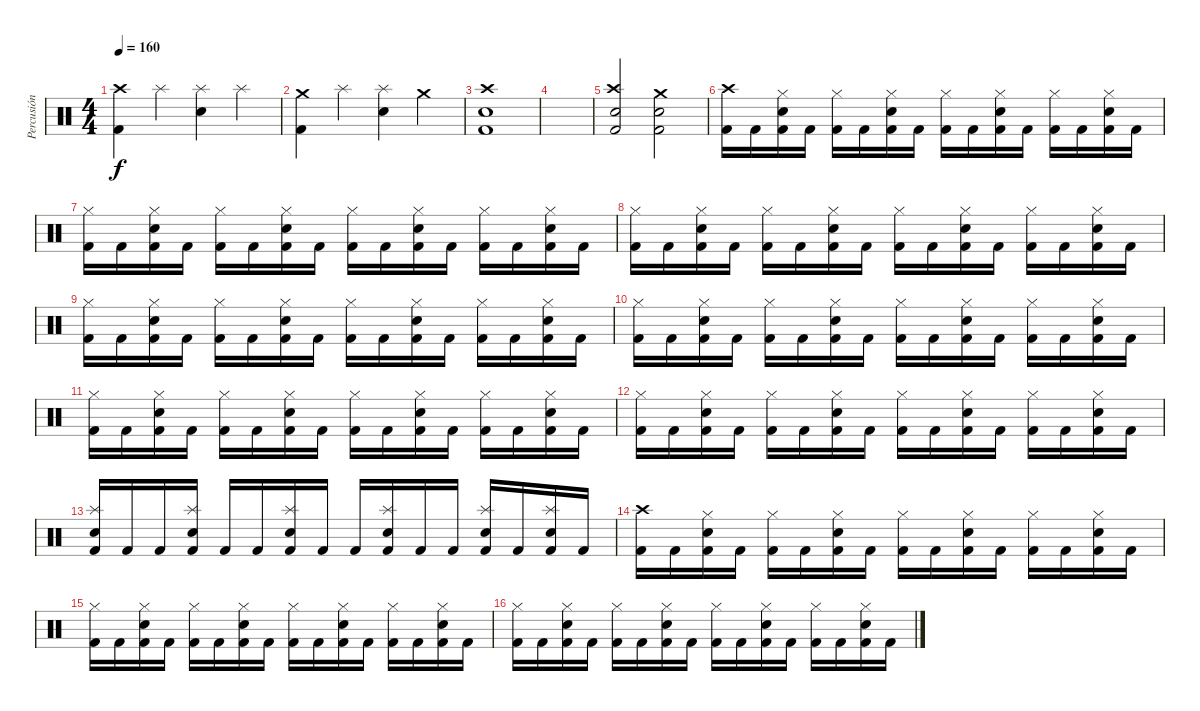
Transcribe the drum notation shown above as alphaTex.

\track ("Percusión" "Percusión") {instrument percussion}
\staff {score}
\articulation defaults
\ts (4 4)
\tempo 160
\clef neutral
\ks c
("Kick (hit) 2" "Crash high (hit)").4{dy f} "Splash (hit)".4 ("Snare (hit) 2" "Splash (hit)").4 "Splash (hit)".4 |
("Kick (hit) 2" "Crash medium (hit)").4 "Splash (hit)".4 ("Snare (hit) 2" "Splash (hit)").4 "Crash medium (hit)".4 |
("Kick (hit) 2" "Snare (hit) 2" "Crash high (hit)").1 |
|
("Kick (hit) 2" "Snare (hit) 2" "Crash high (hit)").2 ("Kick (hit) 2" "Snare (hit) 2" "Crash medium (hit)").2 |
("Kick (hit) 2" "Crash high (hit)").16 "Kick (hit) 2".16 ("Kick (hit) 2" "Snare (hit) 2" "Hi-Hat (closed)").16 "Kick (hit) 2".16 ("Kick (hit) 2" "Hi-Hat (closed)").16 "Kick (hit) 2".16 ("Kick (hit) 2" "Snare (hit) 2" "Hi-Hat (closed)").16 "Kick (hit) 2".16 ("Kick (hit) 2" "Hi-Hat (closed)").16 "Kick (hit) 2".16 ("Kick (hit) 2" "Snare (hit) 2" "Hi-Hat (closed)").16 "Kick (hit) 2".16 ("Kick (hit) 2" "Hi-Hat (closed)").16 "Kick (hit) 2".16 ("Kick (hit) 2" "Snare (hit) 2" "Hi-Hat (closed)").16 "Kick (hit) 2".16 |
("Kick (hit) 2" "Hi-Hat (closed)").16 "Kick (hit) 2".16 ("Kick (hit) 2" "Snare (hit) 2" "Hi-Hat (closed)").16 "Kick (hit) 2".16 ("Kick (hit) 2" "Hi-Hat (closed)").16 "Kick (hit) 2".16 ("Kick (hit) 2" "Snare (hit) 2" "Hi-Hat (closed)").16 "Kick (hit) 2".16 ("Kick (hit) 2" "Hi-Hat (closed)").16 "Kick (hit) 2".16 ("Kick (hit) 2" "Snare (hit) 2" "Hi-Hat (closed)").16 "Kick (hit) 2".16 ("Kick (hit) 2" "Hi-Hat (closed)").16 "Kick (hit) 2".16 ("Kick (hit) 2" "Snare (hit) 2" "Hi-Hat (closed)").16 "Kick (hit) 2".16 |
("Kick (hit) 2" "Hi-Hat (closed)").16 "Kick (hit) 2".16 ("Kick (hit) 2" "Snare (hit) 2" "Hi-Hat (closed)").16 "Kick (hit) 2".16 ("Kick (hit) 2" "Hi-Hat (closed)").16 "Kick (hit) 2".16 ("Kick (hit) 2" "Snare (hit) 2" "Hi-Hat (closed)").16 "Kick (hit) 2".16 ("Kick (hit) 2" "Hi-Hat (closed)").16 "Kick (hit) 2".16 ("Kick (hit) 2" "Snare (hit) 2" "Hi-Hat (closed)").16 "Kick (hit) 2".16 ("Kick (hit) 2" "Hi-Hat (closed)").16 "Kick (hit) 2".16 ("Kick (hit) 2" "Snare (hit) 2" "Hi-Hat (closed)").16 "Kick (hit) 2".16 |
("Kick (hit) 2" "Hi-Hat (closed)").16 "Kick (hit) 2".16 ("Kick (hit) 2" "Snare (hit) 2" "Hi-Hat (closed)").16 "Kick (hit) 2".16 ("Kick (hit) 2" "Hi-Hat (closed)").16 "Kick (hit) 2".16 ("Kick (hit) 2" "Snare (hit) 2" "Hi-Hat (closed)").16 "Kick (hit) 2".16 ("Kick (hit) 2" "Hi-Hat (closed)").16 "Kick (hit) 2".16 ("Kick (hit) 2" "Snare (hit) 2" "Hi-Hat (closed)").16 "Kick (hit) 2".16 ("Kick (hit) 2" "Hi-Hat (closed)").16 "Kick (hit) 2".16 ("Kick (hit) 2" "Snare (hit) 2" "Hi-Hat (closed)").16 "Kick (hit) 2".16 |
("Kick (hit) 2" "Hi-Hat (closed)").16 "Kick (hit) 2".16 ("Kick (hit) 2" "Snare (hit) 2" "Hi-Hat (closed)").16 "Kick (hit) 2".16 ("Kick (hit) 2" "Hi-Hat (closed)").16 "Kick (hit) 2".16 ("Kick (hit) 2" "Snare (hit) 2" "Hi-Hat (closed)").16 "Kick (hit) 2".16 ("Kick (hit) 2" "Hi-Hat (closed)").16 "Kick (hit) 2".16 ("Kick (hit) 2" "Snare (hit) 2" "Hi-Hat (closed)").16 "Kick (hit) 2".16 ("Kick (hit) 2" "Hi-Hat (closed)").16 "Kick (hit) 2".16 ("Kick (hit) 2" "Snare (hit) 2" "Hi-Hat (closed)").16 "Kick (hit) 2".16 |
("Kick (hit) 2" "Hi-Hat (closed)").16 "Kick (hit) 2".16 ("Kick (hit) 2" "Snare (hit) 2" "Hi-Hat (closed)").16 "Kick (hit) 2".16 ("Kick (hit) 2" "Hi-Hat (closed)").16 "Kick (hit) 2".16 ("Kick (hit) 2" "Snare (hit) 2" "Hi-Hat (closed)").16 "Kick (hit) 2".16 ("Kick (hit) 2" "Hi-Hat (closed)").16 "Kick (hit) 2".16 ("Kick (hit) 2" "Snare (hit) 2" "Hi-Hat (closed)").16 "Kick (hit) 2".16 ("Kick (hit) 2" "Hi-Hat (closed)").16 "Kick (hit) 2".16 ("Kick (hit) 2" "Snare (hit) 2" "Hi-Hat (closed)").16 "Kick (hit) 2".16 |
("Kick (hit) 2" "Hi-Hat (closed)").16 "Kick (hit) 2".16 ("Kick (hit) 2" "Snare (hit) 2" "Hi-Hat (closed)").16 "Kick (hit) 2".16 ("Kick (hit) 2" "Hi-Hat (closed)").16 "Kick (hit) 2".16 ("Kick (hit) 2" "Snare (hit) 2" "Hi-Hat (closed)").16 "Kick (hit) 2".16 ("Kick (hit) 2" "Hi-Hat (closed)").16 "Kick (hit) 2".16 ("Kick (hit) 2" "Snare (hit) 2" "Hi-Hat (closed)").16 "Kick (hit) 2".16 ("Kick (hit) 2" "Hi-Hat (closed)").16 "Kick (hit) 2".16 ("Kick (hit) 2" "Snare (hit) 2" "Hi-Hat (closed)").16 "Kick (hit) 2".16 |
("Kick (hit) 2" "Snare (hit) 2" "Splash (hit)").16 "Kick (hit) 2".16 "Kick (hit) 2".16 ("Kick (hit) 2" "Snare (hit) 2" "Splash (hit)").16 "Kick (hit) 2".16 "Kick (hit) 2".16 ("Kick (hit) 2" "Snare (hit) 2" "Splash (hit)").16 "Kick (hit) 2".16 "Kick (hit) 2".16 ("Kick (hit) 2" "Snare (hit) 2" "Splash (hit)").16 "Kick (hit) 2".16 "Kick (hit) 2".16 ("Kick (hit) 2" "Snare (hit) 2" "Splash (hit)").16 "Kick (hit) 2".16 ("Kick (hit) 2" "Snare (hit) 2" "Splash (hit)").16 "Kick (hit) 2".16 |
("Kick (hit) 2" "Crash high (hit)").16 "Kick (hit) 2".16 ("Kick (hit) 2" "Snare (hit) 2" "Hi-Hat (closed)").16 "Kick (hit) 2".16 ("Kick (hit) 2" "Hi-Hat (closed)").16 "Kick (hit) 2".16 ("Kick (hit) 2" "Snare (hit) 2" "Hi-Hat (closed)").16 "Kick (hit) 2".16 ("Kick (hit) 2" "Hi-Hat (closed)").16 "Kick (hit) 2".16 ("Kick (hit) 2" "Snare (hit) 2" "Hi-Hat (closed)").16 "Kick (hit) 2".16 ("Kick (hit) 2" "Hi-Hat (closed)").16 "Kick (hit) 2".16 ("Kick (hit) 2" "Snare (hit) 2" "Hi-Hat (closed)").16 "Kick (hit) 2".16 |
("Kick (hit) 2" "Hi-Hat (closed)").16 "Kick (hit) 2".16 ("Kick (hit) 2" "Snare (hit) 2" "Hi-Hat (closed)").16 "Kick (hit) 2".16 ("Kick (hit) 2" "Hi-Hat (closed)").16 "Kick (hit) 2".16 ("Kick (hit) 2" "Snare (hit) 2" "Hi-Hat (closed)").16 "Kick (hit) 2".16 ("Kick (hit) 2" "Hi-Hat (closed)").16 "Kick (hit) 2".16 ("Kick (hit) 2" "Snare (hit) 2" "Hi-Hat (closed)").16 "Kick (hit) 2".16 ("Kick (hit) 2" "Hi-Hat (closed)").16 "Kick (hit) 2".16 ("Kick (hit) 2" "Snare (hit) 2" "Hi-Hat (closed)").16 "Kick (hit) 2".16 |
("Kick (hit) 2" "Hi-Hat (closed)").16 "Kick (hit) 2".16 ("Kick (hit) 2" "Snare (hit) 2" "Hi-Hat (closed)").16 "Kick (hit) 2".16 ("Kick (hit) 2" "Hi-Hat (closed)").16 "Kick (hit) 2".16 ("Kick (hit) 2" "Snare (hit) 2" "Hi-Hat (closed)").16 "Kick (hit) 2".16 ("Kick (hit) 2" "Hi-Hat (closed)").16 "Kick (hit) 2".16 ("Kick (hit) 2" "Snare (hit) 2" "Hi-Hat (closed)").16 "Kick (hit) 2".16 ("Kick (hit) 2" "Hi-Hat (closed)").16 "Kick (hit) 2".16 ("Kick (hit) 2" "Snare (hit) 2" "Hi-Hat (closed)").16 "Kick (hit) 2".16
